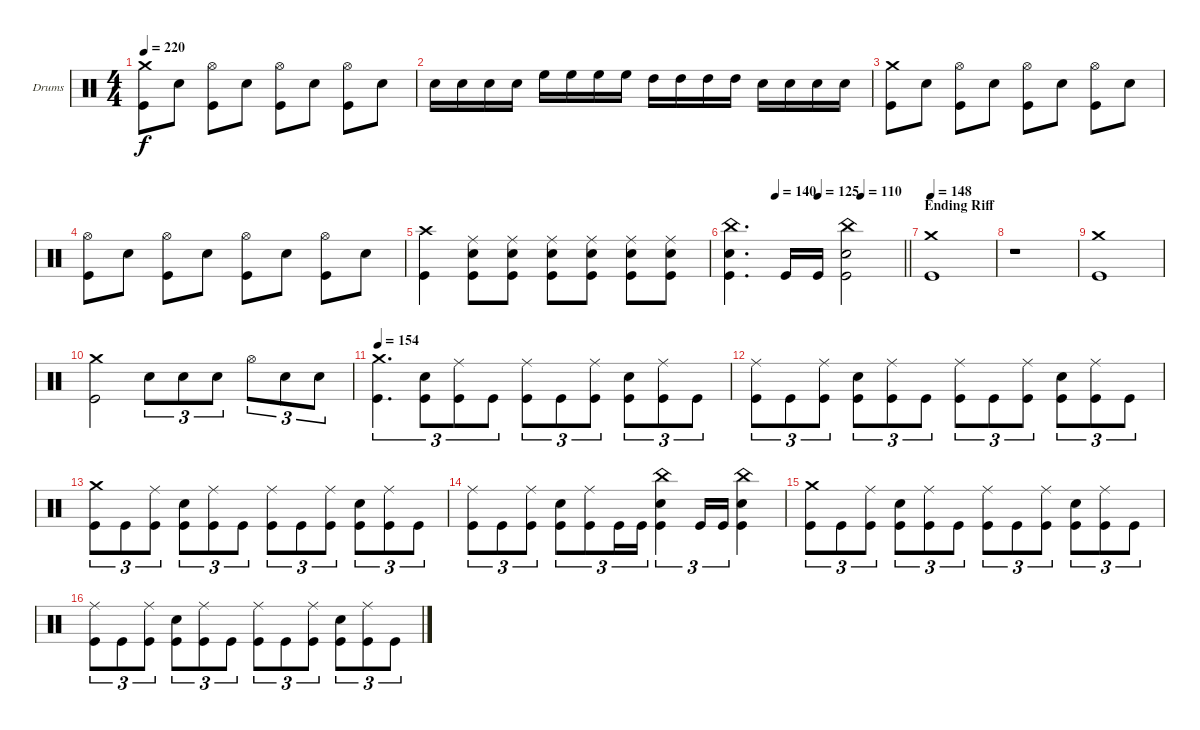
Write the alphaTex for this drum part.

\bracketExtendMode groupsimilarinstruments
\firstSystemTrackNameOrientation horizontal
\otherSystemsTrackNameOrientation horizontal
\track ("Drumkit" "Drums") {instrument percussion}
\staff {score}
\articulation defaults
\ts (4 4)
\tempo 220
\clef neutral
\ks c
("Crash medium (hit)" "Kick (hit)").8{dy f} "Snare (hit) 2".8 ("Hi-Hat (open)" "Kick (hit)").8 "Snare (hit) 2".8 ("Hi-Hat (open)" "Kick (hit)").8 "Snare (hit) 2".8 ("Hi-Hat (open)" "Kick (hit)").8 "Snare (hit) 2".8 |
"Snare (hit) 2".16 "Snare (hit) 2".16 "Snare (hit) 2".16 "Snare (hit) 2".16 "High Floor Tom (hit)".16 "High Floor Tom (hit)".16 "High Floor Tom (hit)".16 "High Floor Tom (hit)".16 "High Tom (hit)".16 "High Tom (hit)".16 "High Tom (hit)".16 "High Tom (hit)".16 "Snare (hit) 2".16 "Snare (hit) 2".16 "Snare (hit) 2".16 "Snare (hit) 2".16 |
("Crash medium (hit)" "Kick (hit)").8 "Snare (hit) 2".8 ("Hi-Hat (open)" "Kick (hit)").8 "Snare (hit) 2".8 ("Hi-Hat (open)" "Kick (hit)").8 "Snare (hit) 2".8 ("Hi-Hat (open)" "Kick (hit)").8 "Snare (hit) 2".8 |
("Hi-Hat (open)" "Kick (hit)").8 "Snare (hit) 2".8 ("Hi-Hat (open)" "Kick (hit)").8 "Snare (hit) 2".8 ("Hi-Hat (open)" "Kick (hit)").8 "Snare (hit) 2".8 ("Hi-Hat (open)" "Kick (hit)").8 "Snare (hit) 2".8 |
("Crash high (hit)" "Kick (hit)").4 ("Ride (middle)" "Snare (hit) 2" "Kick (hit)").8 ("Ride (middle)" "Snare (hit) 2" "Kick (hit)").8 ("Ride (middle)" "Snare (hit) 2" "Kick (hit)").8 ("Ride (middle)" "Snare (hit) 2" "Kick (hit)").8 ("Ride (middle)" "Snare (hit) 2" "Kick (hit)").8 ("Ride (middle)" "Snare (hit) 2" "Kick (hit)").8 |
\tempo (140 0.25)
\tempo (125 0.5)
\tempo (110 0.75)
\barLineRight lightlight
("China (hit)" "Snare (hit) 2" "Kick (hit)").4{d} "Kick (hit)".16 "Kick (hit)".16 ("China (hit)" "Snare (hit) 2" "Kick (hit)").2 |
\section ("" "Ending Riff")
\tempo 148
("Crash medium (hit)" "Kick (hit)").1 |
r.1 |
("Crash medium (hit)" "Kick (hit)").1 |
("Crash medium (hit)" "Kick (hit)").2 "Snare (hit) 2".8{tu (3 2)} "Snare (hit) 2".8{tu (3 2)} "Snare (hit) 2".8{tu (3 2)} "Hi-Hat (open)".8{tu (3 2)} "Snare (hit) 2".8{tu (3 2)} "Snare (hit) 2".8{tu (3 2)} |
\tempo 154
("Crash medium (hit)" "Kick (hit)").4{d tu (3 2)} ("Snare (hit) 2" "Kick (hit)").8{tu (3 2)} ("Ride (middle)" "Kick (hit)").8{tu (3 2)} "Kick (hit)".8{tu (3 2)} ("Ride (middle)" "Kick (hit)").8{tu (3 2)} "Kick (hit)".8{tu (3 2)} ("Ride (middle)" "Kick (hit)").8{tu (3 2)} ("Snare (hit) 2" "Kick (hit)").8{tu (3 2)} ("Ride (middle)" "Kick (hit)").8{tu (3 2)} "Kick (hit)".8{tu (3 2)} |
("Ride (middle)" "Kick (hit)").8{tu (3 2)} "Kick (hit)".8{tu (3 2)} ("Ride (middle)" "Kick (hit)").8{tu (3 2)} ("Snare (hit) 2" "Kick (hit)").8{tu (3 2)} ("Ride (middle)" "Kick (hit)").8{tu (3 2)} "Kick (hit)".8{tu (3 2)} ("Ride (middle)" "Kick (hit)").8{tu (3 2)} "Kick (hit)".8{tu (3 2)} ("Ride (middle)" "Kick (hit)").8{tu (3 2)} ("Snare (hit) 2" "Kick (hit)").8{tu (3 2)} ("Ride (middle)" "Kick (hit)").8{tu (3 2)} "Kick (hit)".8{tu (3 2)} |
("Crash medium (hit)" "Kick (hit)").8{tu (3 2)} "Kick (hit)".8{tu (3 2)} ("Ride (middle)" "Kick (hit)").8{tu (3 2)} ("Snare (hit) 2" "Kick (hit)").8{tu (3 2)} ("Ride (middle)" "Kick (hit)").8{tu (3 2)} "Kick (hit)".8{tu (3 2)} ("Ride (middle)" "Kick (hit)").8{tu (3 2)} "Kick (hit)".8{tu (3 2)} ("Ride (middle)" "Kick (hit)").8{tu (3 2)} ("Snare (hit) 2" "Kick (hit)").8{tu (3 2)} ("Ride (middle)" "Kick (hit)").8{tu (3 2)} "Kick (hit)".8{tu (3 2)} |
("Ride (middle)" "Kick (hit)").8{tu (3 2)} "Kick (hit)".8{tu (3 2)} ("Ride (middle)" "Kick (hit)").8{tu (3 2)} ("Snare (hit) 2" "Kick (hit)").8{tu (3 2)} ("Ride (middle)" "Kick (hit)").8{tu (3 2)} "Kick (hit)".16{tu (3 2)} "Kick (hit)".16{tu (3 2)} ("China (hit)" "Snare (hit) 2" "Kick (hit)").4{tu (3 2)} "Kick (hit)".16{tu (3 2)} "Kick (hit)".16{tu (3 2)} ("China (hit)" "Snare (hit) 2" "Kick (hit)").4 |
("Crash medium (hit)" "Kick (hit)").8{tu (3 2)} "Kick (hit)".8{tu (3 2)} ("Ride (middle)" "Kick (hit)").8{tu (3 2)} ("Snare (hit) 2" "Kick (hit)").8{tu (3 2)} ("Ride (middle)" "Kick (hit)").8{tu (3 2)} "Kick (hit)".8{tu (3 2)} ("Ride (middle)" "Kick (hit)").8{tu (3 2)} "Kick (hit)".8{tu (3 2)} ("Ride (middle)" "Kick (hit)").8{tu (3 2)} ("Snare (hit) 2" "Kick (hit)").8{tu (3 2)} ("Ride (middle)" "Kick (hit)").8{tu (3 2)} "Kick (hit)".8{tu (3 2)} |
("Ride (middle)" "Kick (hit)").8{tu (3 2)} "Kick (hit)".8{tu (3 2)} ("Ride (middle)" "Kick (hit)").8{tu (3 2)} ("Snare (hit) 2" "Kick (hit)").8{tu (3 2)} ("Ride (middle)" "Kick (hit)").8{tu (3 2)} "Kick (hit)".8{tu (3 2)} ("Ride (middle)" "Kick (hit)").8{tu (3 2)} "Kick (hit)".8{tu (3 2)} ("Ride (middle)" "Kick (hit)").8{tu (3 2)} ("Snare (hit) 2" "Kick (hit)").8{tu (3 2)} ("Ride (middle)" "Kick (hit)").8{tu (3 2)} "Kick (hit)".8{tu (3 2)}
